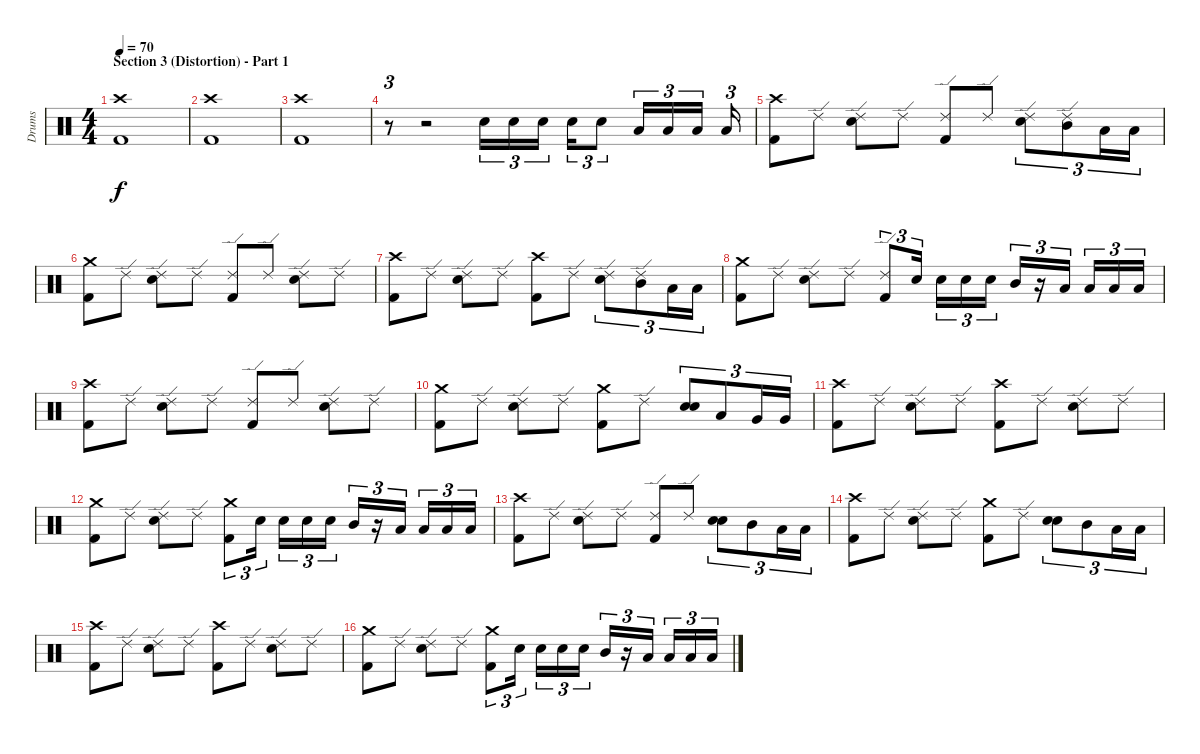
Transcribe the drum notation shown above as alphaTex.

\track ("Drums" "Drums") {instrument percussion}
\staff {score}
\articulation defaults
\ts (4 4)
\section ("" "Section 3 (Distortion) - Part 1")
\tempo 70
\clef neutral
\ks c
("Crash high (hit)" "Kick (hit) 2").1{dy f} |
("Crash high (hit)" "Kick (hit) 2").1 |
("Crash high (hit)" "Kick (hit) 2").1 |
r.8{tu (3 2)} r.2 "Electric Snare (hit)".16{tu (3 2)} "Electric Snare (hit)".16{tu (3 2)} "Electric Snare (hit)".16{tu (3 2) beam splitsecondary} "Electric Snare (hit)".16{tu (3 2)} "Electric Snare (hit)".8{tu (3 2)} "Low Tom (hit)".16{tu (3 2)} "Low Tom (hit)".16{tu (3 2)} "Low Tom (hit)".16{tu (3 2) beam splitsecondary} "Low Tom (hit)".16{tu (3 2)} |
("Crash high (hit)" "Kick (hit) 2").8 "Ride (edge) 2".8 ("Ride (edge) 2" "Electric Snare (hit)").8 "Ride (edge) 2".8 ("Ride (edge) 2" "Kick (hit) 2").8 "Ride (edge) 2".8 ("Ride (edge) 2" "Electric Snare (hit)").8{tu (3 2)} ("Ride (edge) 2" "Mid Tom (hit)").8{tu (3 2)} "Low Tom (hit)".16{tu (3 2)} "Low Tom (hit)".16{tu (3 2)} |
("Crash medium (hit)" "Kick (hit) 2").8 "Ride (edge) 2".8 ("Ride (edge) 2" "Electric Snare (hit)").8 "Ride (edge) 2".8 ("Ride (edge) 2" "Kick (hit) 2").8 "Ride (edge) 2".8 ("Ride (edge) 2" "Electric Snare (hit)").8 "Ride (edge) 2".8 |
("Crash high (hit)" "Kick (hit) 2").8 "Ride (edge) 2".8 ("Ride (edge) 2" "Electric Snare (hit)").8 "Ride (edge) 2".8 ("Crash high (hit)" "Kick (hit) 2").8 "Ride (edge) 2".8 ("Ride (edge) 2" "Electric Snare (hit)").8{tu (3 2)} ("Ride (edge) 2" "Mid Tom (hit)").8{tu (3 2)} "Low Tom (hit)".16{tu (3 2)} "Low Tom (hit)".16{tu (3 2)} |
("Crash medium (hit)" "Kick (hit) 2").8 "Ride (edge) 2".8 ("Ride (edge) 2" "Electric Snare (hit)").8 "Ride (edge) 2".8 ("Ride (edge) 2" "Kick (hit) 2").8{tu (3 2)} "Electric Snare (hit)".16{tu (3 2) beam splitsecondary} "Electric Snare (hit)".16{tu (3 2)} "Electric Snare (hit)".16{tu (3 2)} "Electric Snare (hit)".16{tu (3 2)} "Mid Tom (hit)".16{tu (3 2)} r.16{tu (3 2)} "Low Tom (hit)".16{tu (3 2) beam splitsecondary} "Low Tom (hit)".16{tu (3 2)} "Low Tom (hit)".16{tu (3 2)} "Low Tom (hit)".16{tu (3 2)} |
("Crash high (hit)" "Kick (hit) 2").8 "Ride (edge) 2".8 ("Ride (edge) 2" "Electric Snare (hit)").8 "Ride (edge) 2".8 ("Ride (edge) 2" "Kick (hit) 2").8 "Ride (edge) 2".8 ("Ride (edge) 2" "Electric Snare (hit)").8 "Ride (edge) 2".8 |
("Crash medium (hit)" "Kick (hit) 2").8 "Ride (edge) 2".8 ("Ride (edge) 2" "Electric Snare (hit)").8 "Ride (edge) 2".8 ("Crash medium (hit)" "Kick (hit) 2").8 "Ride (edge) 2".8 ("Electric Snare (hit)" "Electric Snare (hit)").8{tu (3 2) bu 60} "Low Tom (hit)".8{tu (3 2)} "Very Low Tom (hit)".16{tu (3 2)} "Very Low Tom (hit)".16{tu (3 2)} |
("Crash high (hit)" "Kick (hit) 2").8 "Ride (edge) 2".8 ("Ride (edge) 2" "Electric Snare (hit)").8 "Ride (edge) 2".8 ("Crash high (hit)" "Kick (hit) 2").8 "Ride (edge) 2".8 ("Ride (edge) 2" "Electric Snare (hit)").8 "Ride (edge) 2".8 |
("Crash medium (hit)" "Kick (hit) 2").8 "Ride (edge) 2".8 ("Ride (edge) 2" "Electric Snare (hit)").8 "Ride (edge) 2".8 ("Crash medium (hit)" "Kick (hit) 2").8{tu (3 2)} "Electric Snare (hit)".16{tu (3 2) beam splitsecondary} "Electric Snare (hit)".16{tu (3 2)} "Electric Snare (hit)".16{tu (3 2)} "Electric Snare (hit)".16{tu (3 2)} "Mid Tom (hit)".16{tu (3 2)} r.16{tu (3 2)} "Low Tom (hit)".16{tu (3 2) beam splitsecondary} "Low Tom (hit)".16{tu (3 2)} "Low Tom (hit)".16{tu (3 2)} "Low Tom (hit)".16{tu (3 2)} |
("Crash high (hit)" "Kick (hit) 2").8 "Ride (edge) 2".8 ("Ride (edge) 2" "Electric Snare (hit)").8 "Ride (edge) 2".8 ("Ride (edge) 2" "Kick (hit) 2").8 "Ride (edge) 2".8 ("Electric Snare (hit)" "Electric Snare (hit)").8{tu (3 2) bu 60} "Mid Tom (hit)".8{tu (3 2)} "Low Tom (hit)".16{tu (3 2)} "Low Tom (hit)".16{tu (3 2)} |
("Crash high (hit)" "Kick (hit) 2").8 "Ride (edge) 2".8 ("Ride (edge) 2" "Electric Snare (hit)").8 "Ride (edge) 2".8 ("Crash medium (hit)" "Kick (hit) 2").8 "Ride (edge) 2".8 ("Electric Snare (hit)" "Electric Snare (hit)").8{tu (3 2) bu 60} "Mid Tom (hit)".8{tu (3 2)} "Low Tom (hit)".16{tu (3 2)} "Low Tom (hit)".16{tu (3 2)} |
("Crash high (hit)" "Kick (hit) 2").8 "Ride (edge) 2".8 ("Ride (edge) 2" "Electric Snare (hit)").8 "Ride (edge) 2".8 ("Crash high (hit)" "Kick (hit) 2").8 "Ride (edge) 2".8 ("Ride (edge) 2" "Electric Snare (hit)").8 "Ride (edge) 2".8 |
("Crash medium (hit)" "Kick (hit) 2").8 "Ride (edge) 2".8 ("Ride (edge) 2" "Electric Snare (hit)").8 "Ride (edge) 2".8 ("Crash medium (hit)" "Kick (hit) 2").8{tu (3 2)} "Electric Snare (hit)".16{tu (3 2) beam splitsecondary} "Electric Snare (hit)".16{tu (3 2)} "Electric Snare (hit)".16{tu (3 2)} "Electric Snare (hit)".16{tu (3 2)} "Mid Tom (hit)".16{tu (3 2)} r.16{tu (3 2)} "Low Tom (hit)".16{tu (3 2) beam splitsecondary} "Low Tom (hit)".16{tu (3 2)} "Low Tom (hit)".16{tu (3 2)} "Low Tom (hit)".16{tu (3 2)}
